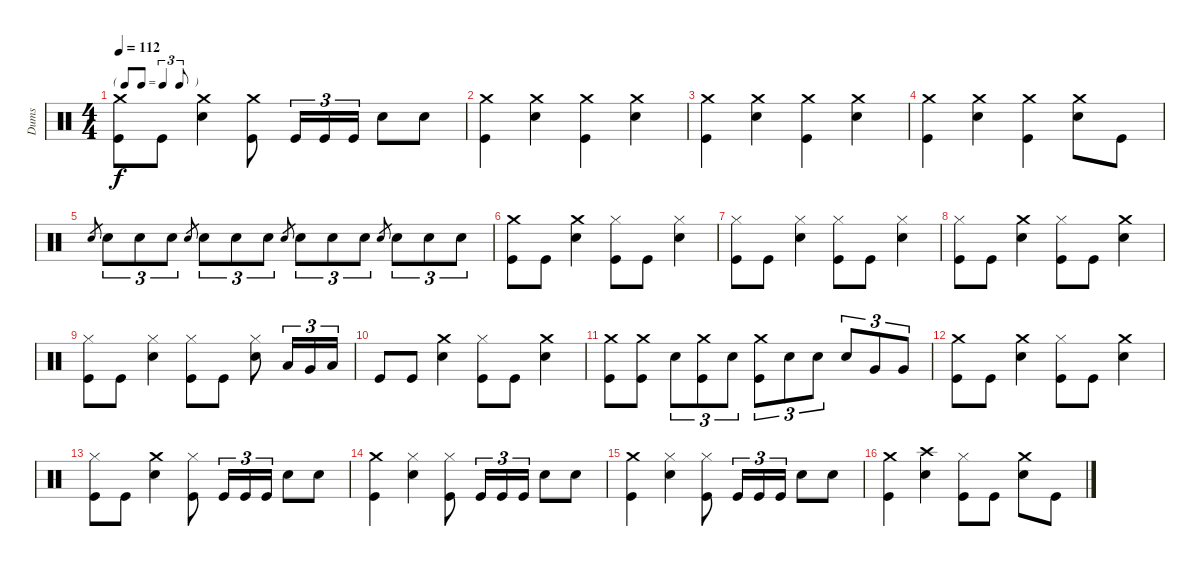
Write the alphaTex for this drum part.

\track ("Dums" "Dums") {instrument percussion}
\staff {score}
\articulation defaults
\ts (4 4)
\tf triplet8th
\tempo 112
\clef neutral
\ks c
("Kick (hit)" "Crash medium (hit)").8{dy f} "Kick (hit)".8 ("Electric Snare (hit)" "Crash medium (hit)").4 ("Kick (hit)" "Crash medium (hit)").8 "Kick (hit)".16{tu (3 2)} "Kick (hit)".16{tu (3 2)} "Kick (hit)".16{tu (3 2)} "Electric Snare (hit)".8 "Electric Snare (hit)".8 |
("Kick (hit)" "Crash medium (hit)").4 ("Electric Snare (hit)" "Crash medium (hit)").4 ("Kick (hit)" "Crash medium (hit)").4 ("Electric Snare (hit)" "Crash medium (hit)").4 |
("Kick (hit)" "Crash medium (hit)").4 ("Electric Snare (hit)" "Crash medium (hit)").4 ("Kick (hit)" "Crash medium (hit)").4 ("Electric Snare (hit)" "Crash medium (hit)").4 |
("Kick (hit)" "Crash medium (hit)").4 ("Electric Snare (hit)" "Crash medium (hit)").4 ("Kick (hit)" "Crash medium (hit)").4 ("Electric Snare (hit)" "Crash medium (hit)").8 "Kick (hit)".8 |
"Electric Snare (hit)".8{gr} "Electric Snare (hit)".8{tu (3 2)} "Electric Snare (hit)".8{tu (3 2)} "Electric Snare (hit)".8{tu (3 2)} "Electric Snare (hit)".8{gr} "Electric Snare (hit)".8{tu (3 2)} "Electric Snare (hit)".8{tu (3 2)} "Electric Snare (hit)".8{tu (3 2)} "Electric Snare (hit)".8{gr} "Electric Snare (hit)".8{tu (3 2)} "Electric Snare (hit)".8{tu (3 2)} "Electric Snare (hit)".8{tu (3 2)} "Electric Snare (hit)".8{gr} "Electric Snare (hit)".8{tu (3 2)} "Electric Snare (hit)".8{tu (3 2)} "Electric Snare (hit)".8{tu (3 2)} |
("Kick (hit)" "Crash medium (hit)").8 "Kick (hit)".8 ("Electric Snare (hit)" "Crash medium (hit)").4 ("Kick (hit)" "Hi-Hat (closed)").8 "Kick (hit)".8 ("Electric Snare (hit)" "Hi-Hat (closed)").4 |
("Kick (hit)" "Hi-Hat (closed)").8 "Kick (hit)".8 ("Electric Snare (hit)" "Hi-Hat (closed)").4 ("Kick (hit)" "Hi-Hat (closed)").8 "Kick (hit)".8 ("Electric Snare (hit)" "Hi-Hat (closed)").4 |
("Kick (hit)" "Hi-Hat (closed)").8 "Kick (hit)".8 ("Electric Snare (hit)" "Crash medium (hit)").4 ("Kick (hit)" "Hi-Hat (closed)").8 "Kick (hit)".8 ("Electric Snare (hit)" "Crash medium (hit)").4 |
("Kick (hit)" "Hi-Hat (closed)").8 "Kick (hit)".8 ("Electric Snare (hit)" "Hi-Hat (closed)").4 ("Kick (hit)" "Hi-Hat (closed)").8 "Kick (hit)".8 ("Electric Snare (hit)" "Hi-Hat (closed)").8 "Low Floor Tom (hit)".16{tu (3 2)} "Very Low Tom (hit)".16{tu (3 2)} "Low Floor Tom (hit)".16{tu (3 2)} |
"Kick (hit)".8 "Kick (hit)".8 ("Electric Snare (hit)" "Crash medium (hit)").4 ("Kick (hit)" "Hi-Hat (closed)").8 "Kick (hit)".8 ("Electric Snare (hit)" "Crash medium (hit)").4 |
("Kick (hit)" "Crash medium (hit)").8 ("Kick (hit)" "Crash medium (hit)").8 "Electric Snare (hit)".8{tu (3 2)} ("Kick (hit)" "Crash medium (hit)").8{tu (3 2)} "Electric Snare (hit)".8{tu (3 2)} ("Kick (hit)" "Crash medium (hit)").8{tu (3 2)} "Electric Snare (hit)".8{tu (3 2)} "Electric Snare (hit)".8{tu (3 2)} "Electric Snare (hit)".8{tu (3 2)} "Very Low Tom (hit)".8{tu (3 2)} "Very Low Tom (hit)".8{tu (3 2)} |
("Kick (hit)" "Crash medium (hit)").8 "Kick (hit)".8 ("Electric Snare (hit)" "Crash medium (hit)").4 ("Kick (hit)" "Hi-Hat (closed)").8 "Kick (hit)".8 ("Electric Snare (hit)" "Crash medium (hit)").4 |
("Kick (hit)" "Hi-Hat (closed)").8 "Kick (hit)".8 ("Electric Snare (hit)" "Crash medium (hit)").4 ("Kick (hit)" "Hi-Hat (closed)").8 "Kick (hit)".16{tu (3 2)} "Kick (hit)".16{tu (3 2)} "Kick (hit)".16{tu (3 2)} "Electric Snare (hit)".8 "Electric Snare (hit)".8 |
("Kick (hit)" "Crash medium (hit)").4 ("Electric Snare (hit)" "Hi-Hat (closed)").4 ("Kick (hit)" "Hi-Hat (closed)").8 "Kick (hit)".16{tu (3 2)} "Kick (hit)".16{tu (3 2)} "Kick (hit)".16{tu (3 2)} "Electric Snare (hit)".8 "Electric Snare (hit)".8 |
("Kick (hit)" "Crash medium (hit)").4 ("Electric Snare (hit)" "Hi-Hat (closed)").4 ("Kick (hit)" "Hi-Hat (closed)").8 "Kick (hit)".16{tu (3 2)} "Kick (hit)".16{tu (3 2)} "Kick (hit)".16{tu (3 2)} "Electric Snare (hit)".8 "Electric Snare (hit)".8 |
("Kick (hit)" "Crash medium (hit)").4 ("Electric Snare (hit)" "Crash high (hit)").4 ("Kick (hit)" "Hi-Hat (closed)").8 "Kick (hit)".8 ("Electric Snare (hit)" "Crash medium (hit)").8 "Kick (hit)".8
